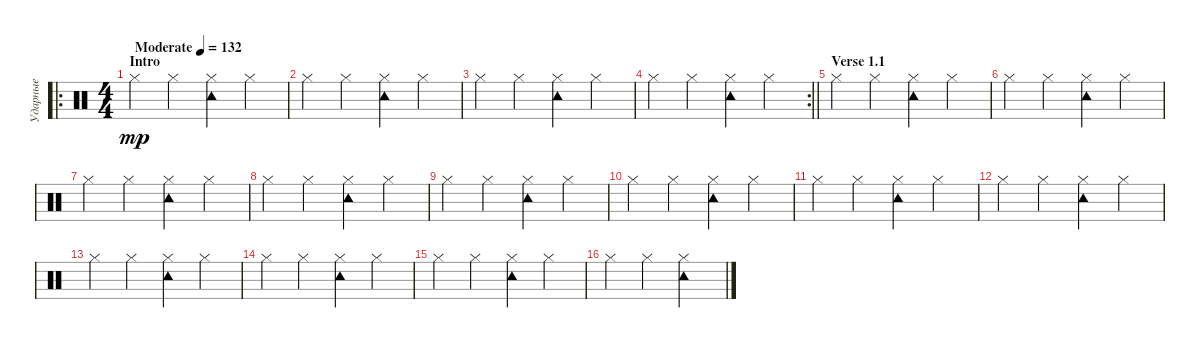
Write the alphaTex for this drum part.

\track ("Ударные" "Ударные") {instrument percussion}
\staff {score}
\articulation defaults
\ro
\ts (4 4)
\section ("" "Intro")
\tempo (132 "Moderate")
\clef neutral
\ks c "Hi-Hat (closed)".4{dy mp} "Hi-Hat (closed)".4
("Hi-Hat (closed)" "Tambourine (hit)").4 "Hi-Hat (closed)".4 |
"Hi-Hat (closed)".4 "Hi-Hat (closed)".4 ("Hi-Hat (closed)" "Tambourine (hit)").4 "Hi-Hat (closed)".4 |
"Hi-Hat (closed)".4 "Hi-Hat (closed)".4 ("Hi-Hat (closed)" "Tambourine (hit)").4 "Hi-Hat (closed)".4 |
\rc 2
\barLineRight lightlight "Hi-Hat (closed)".4 "Hi-Hat (closed)".4
("Hi-Hat (closed)" "Tambourine (hit)").4 "Hi-Hat (closed)".4 |
\section ("" "Verse 1.1")
"Hi-Hat (closed)".4 "Hi-Hat (closed)".4 ("Hi-Hat (closed)" "Tambourine (hit)").4 "Hi-Hat (closed)".4 |
"Hi-Hat (closed)".4 "Hi-Hat (closed)".4 ("Hi-Hat (closed)" "Tambourine (hit)").4 "Hi-Hat (closed)".4 |
"Hi-Hat (closed)".4 "Hi-Hat (closed)".4 ("Hi-Hat (closed)" "Tambourine (hit)").4 "Hi-Hat (closed)".4 |
"Hi-Hat (closed)".4 "Hi-Hat (closed)".4 ("Hi-Hat (closed)" "Tambourine (hit)").4 "Hi-Hat (closed)".4 |
"Hi-Hat (closed)".4 "Hi-Hat (closed)".4 ("Hi-Hat (closed)" "Tambourine (hit)").4 "Hi-Hat (closed)".4 |
"Hi-Hat (closed)".4 "Hi-Hat (closed)".4 ("Hi-Hat (closed)" "Tambourine (hit)").4 "Hi-Hat (closed)".4 |
"Hi-Hat (closed)".4 "Hi-Hat (closed)".4 ("Hi-Hat (closed)" "Tambourine (hit)").4 "Hi-Hat (closed)".4 |
"Hi-Hat (closed)".4 "Hi-Hat (closed)".4 ("Hi-Hat (closed)" "Tambourine (hit)").4 "Hi-Hat (closed)".4 |
"Hi-Hat (closed)".4 "Hi-Hat (closed)".4 ("Hi-Hat (closed)" "Tambourine (hit)").4 "Hi-Hat (closed)".4 |
"Hi-Hat (closed)".4 "Hi-Hat (closed)".4 ("Hi-Hat (closed)" "Tambourine (hit)").4 "Hi-Hat (closed)".4 |
"Hi-Hat (closed)".4 "Hi-Hat (closed)".4 ("Hi-Hat (closed)" "Tambourine (hit)").4 "Hi-Hat (closed)".4 |
"Hi-Hat (closed)".4 "Hi-Hat (closed)".4 ("Hi-Hat (closed)" "Tambourine (hit)").2
